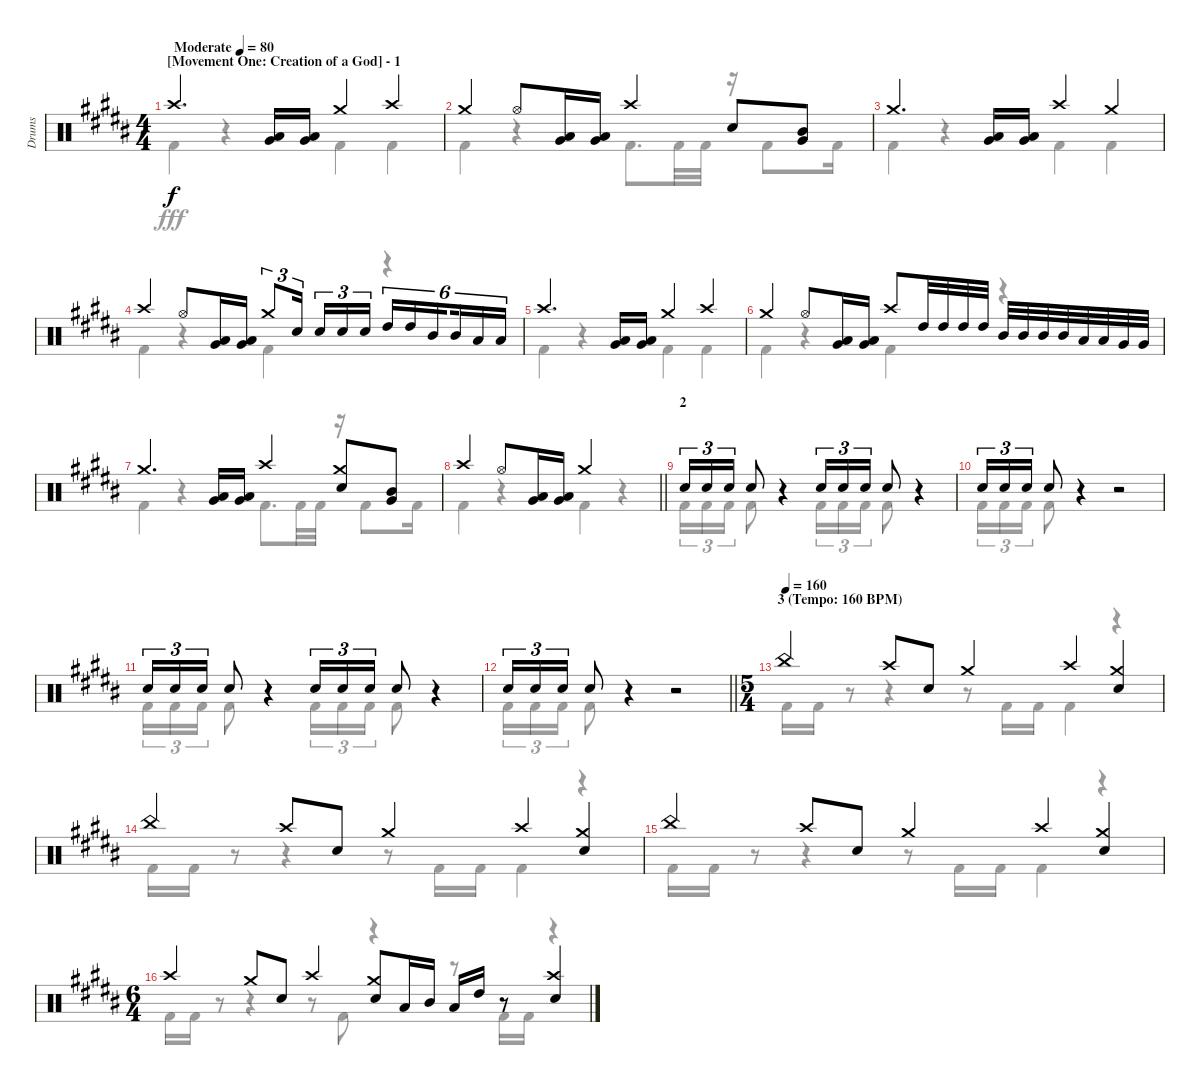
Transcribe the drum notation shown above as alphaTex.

\track ("Drums" "Drums") {instrument percussion}
\staff {score}
\articulation defaults
\voice
\ts (4 4)
\section ("" "[Movement One: Creation of a God] - 1")
\tempo (80 "Moderate")
\clef neutral
\ks b "Crash high (hit)".4{d dy f}
("Low Tom (hit)" "Very Low Tom (hit)").16 ("Low Tom (hit)" "Very Low Tom (hit)").16 "Crash medium (hit)".4 "Crash high (hit)".4 |
"Crash medium (hit)".4 "Hi-Hat (open)".8 ("Low Tom (hit)" "Very Low Tom (hit)").16 ("Low Tom (hit)" "Very Low Tom (hit)").16 "Crash high (hit)".4 "Snare (hit) 2".8 ("Mid Tom (hit)" "Very Low Tom (hit)").8 |
"Crash medium (hit)".4{d} ("Low Tom (hit)" "Very Low Tom (hit)").16 ("Low Tom (hit)" "Very Low Tom (hit)").16 "Crash high (hit)".4 "Crash medium (hit)".4 |
"Crash high (hit)".4 "Hi-Hat (open)".8 ("Low Tom (hit)" "Very Low Tom (hit)").16 ("Low Tom (hit)" "Very Low Tom (hit)").16 "Crash medium (hit)".8{tu (3 2)} "Snare (hit) 2".16{tu (3 2) beam splitsecondary} "Snare (hit) 2".16{tu (3 2)} "Snare (hit) 2".16{tu (3 2)} "Snare (hit) 2".16{tu (3 2)} "High Tom (hit)".16{tu (6 4)} "High Tom (hit)".16{tu (6 4)} "Mid Tom (hit)".16{tu (6 4) beam splitsecondary} "Mid Tom (hit)".16{tu (6 4)} "Low Tom (hit)".16{tu (6 4)} "Low Tom (hit)".16{tu (6 4)} |
"Crash high (hit)".4{d} ("Low Tom (hit)" "Very Low Tom (hit)").16 ("Low Tom (hit)" "Very Low Tom (hit)").16 "Crash medium (hit)".4 "Crash high (hit)".4 |
"Crash medium (hit)".4 "Hi-Hat (open)".8 ("Low Tom (hit)" "Very Low Tom (hit)").16 ("Low Tom (hit)" "Very Low Tom (hit)").16 "Crash high (hit)".8 "High Tom (hit)".32 "High Tom (hit)".32 "High Tom (hit)".32 "High Tom (hit)".32 "Mid Tom (hit)".32 "Mid Tom (hit)".32 "Mid Tom (hit)".32 "Mid Tom (hit)".32 "Low Tom (hit)".32 "Low Tom (hit)".32 "Very Low Tom (hit)".32 "Very Low Tom (hit)".32 |
"Crash medium (hit)".4{d} ("Low Tom (hit)" "Very Low Tom (hit)").16 ("Low Tom (hit)" "Very Low Tom (hit)").16 "Crash high (hit)".4 ("Crash medium (hit)" "Snare (hit) 2").8 ("Mid Tom (hit)" "Very Low Tom (hit)").8 |
\barLineRight lightlight "Crash high (hit)".4 "Hi-Hat (open)".8
("Low Tom (hit)" "Very Low Tom (hit)").16 ("Low Tom (hit)" "Very Low Tom (hit)").16 "Crash medium (hit)".2 |
\section ("" "2")
"Snare (hit) 2".16{tu (3 2)} "Snare (hit) 2".16{tu (3 2)} "Snare (hit) 2".16{tu (3 2)} "Snare (hit) 2".8 r.4 "Snare (hit) 2".16{tu (3 2)} "Snare (hit) 2".16{tu (3 2)} "Snare (hit) 2".16{tu (3 2)} "Snare (hit) 2".8 r.4 |
"Snare (hit) 2".16{tu (3 2)} "Snare (hit) 2".16{tu (3 2)} "Snare (hit) 2".16{tu (3 2)} "Snare (hit) 2".8 r.4 r.2 |
"Snare (hit) 2".16{tu (3 2)} "Snare (hit) 2".16{tu (3 2)} "Snare (hit) 2".16{tu (3 2)} "Snare (hit) 2".8 r.4 "Snare (hit) 2".16{tu (3 2)} "Snare (hit) 2".16{tu (3 2)} "Snare (hit) 2".16{tu (3 2)} "Snare (hit) 2".8 r.4 |
\barLineRight lightlight "Snare (hit) 2".16{tu (3 2)} "Snare (hit) 2".16{tu (3 2)} "Snare (hit) 2".16{tu (3 2)} "Snare (hit) 2".8
r.4 r.2 |
\ts (5 4)
\section ("" "3 (Tempo: 160 BPM)")
\tempo (160)
"China (hit)".4 "Crash high (hit)".8 "Snare (hit) 2".8 "Crash medium (hit)".4 "Crash high (hit)".4 ("Crash medium (hit)" "Snare (hit) 2").4 |
"China (hit)".4 "Crash high (hit)".8 "Snare (hit) 2".8 "Crash medium (hit)".4 "Crash high (hit)".4 ("Crash medium (hit)" "Snare (hit) 2").4 |
"China (hit)".4 "Crash high (hit)".8 "Snare (hit) 2".8 "Crash medium (hit)".4 "Crash high (hit)".4 ("Crash medium (hit)" "Snare (hit) 2").4 |
\ts (6 4)
"Crash high (hit)".4 "Crash medium (hit)".8 "Snare (hit) 2".8 "Crash high (hit)".4 ("Crash medium (hit)" "Snare (hit) 2").8 "Low Tom (hit)".16 "Mid Tom (hit)".16 "Low Tom (hit)".16 "High Tom (hit)".16 r.8 ("Crash high (hit)" "Snare (hit) 2").4
\voice
\clef neutral
\ottava regular
\simile none
\ks b "Kick (hit) 2".4{dy fff}
r.4 "Kick (hit) 2".4 "Kick (hit) 2".4 |
"Kick (hit) 2".4 r.4 "Kick (hit) 2".8{d} "Kick (hit) 2".32 "Kick (hit) 2".32 r.16 "Kick (hit) 2".8 "Kick (hit) 2".16 |
"Kick (hit) 2".4 r.4 "Kick (hit) 2".4 "Kick (hit) 2".4 |
"Kick (hit) 2".4 r.4 "Kick (hit) 2".4 r.4 |
"Kick (hit) 2".4 r.4 "Kick (hit) 2".4 "Kick (hit) 2".4 |
"Kick (hit) 2".4 r.4 "Kick (hit) 2".4 r.4 |
"Kick (hit) 2".4 r.4 "Kick (hit) 2".8{d} "Kick (hit) 2".32 "Kick (hit) 2".32 r.16 "Kick (hit) 2".8 "Kick (hit) 2".16 |
\barLineRight lightlight "Kick (hit) 2".4
r.4 "Kick (hit) 2".4 r.4 |
"Kick (hit) 2".16{tu (3 2)} "Kick (hit) 2".16{tu (3 2)} "Kick (hit) 2".16{tu (3 2)} "Kick (hit) 2".8 r.4 "Kick (hit) 2".16{tu (3 2)} "Kick (hit) 2".16{tu (3 2)} "Kick (hit) 2".16{tu (3 2)} "Kick (hit) 2".8 r.4 |
"Kick (hit) 2".16{tu (3 2)} "Kick (hit) 2".16{tu (3 2)} "Kick (hit) 2".16{tu (3 2)} "Kick (hit) 2".8 r.4 r.2 |
"Kick (hit) 2".16{tu (3 2)} "Kick (hit) 2".16{tu (3 2)} "Kick (hit) 2".16{tu (3 2)} "Kick (hit) 2".8 r.4 "Kick (hit) 2".16{tu (3 2)} "Kick (hit) 2".16{tu (3 2)} "Kick (hit) 2".16{tu (3 2)} "Kick (hit) 2".8 r.4 |
\barLineRight lightlight "Kick (hit) 2".16{tu (3 2)} "Kick (hit) 2".16{tu (3 2)} "Kick (hit) 2".16{tu (3 2)} "Kick (hit) 2".8
r.4 r.2 |
"Kick (hit) 2".16 "Kick (hit) 2".16 r.8 r.4 r.8 "Kick (hit) 2".16 "Kick (hit) 2".16 "Kick (hit) 2".4 r.4 |
"Kick (hit) 2".16 "Kick (hit) 2".16 r.8 r.4 r.8 "Kick (hit) 2".16 "Kick (hit) 2".16 "Kick (hit) 2".4 r.4 |
"Kick (hit) 2".16 "Kick (hit) 2".16 r.8 r.4 r.8 "Kick (hit) 2".16 "Kick (hit) 2".16 "Kick (hit) 2".4 r.4 |
"Kick (hit) 2".16 "Kick (hit) 2".16 r.8 r.4 r.8 "Kick (hit) 2".8 r.4 r.8 "Kick (hit) 2".16 "Kick (hit) 2".16 r.4
